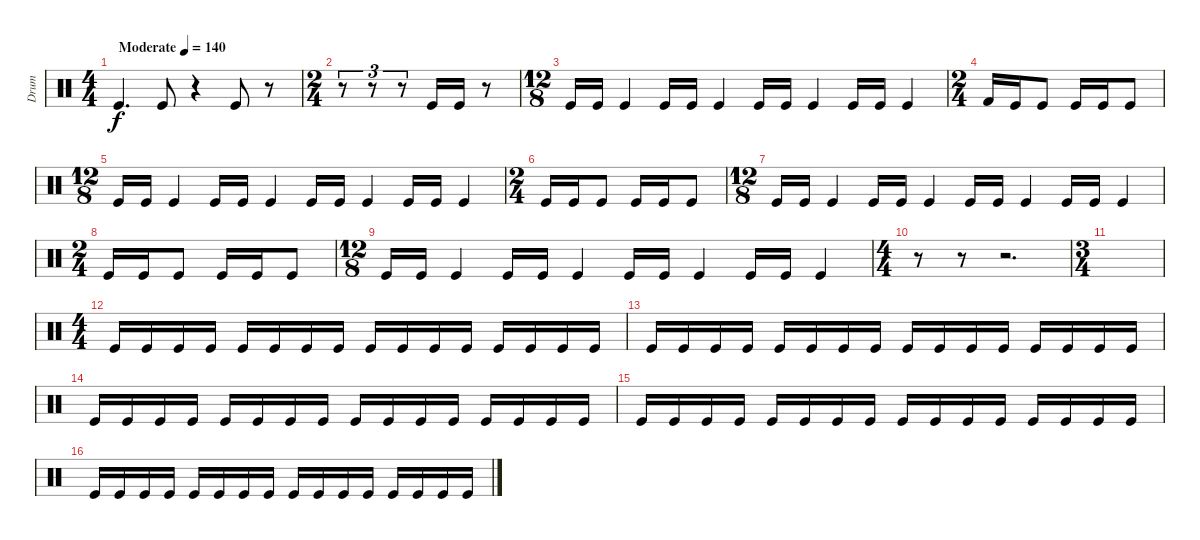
\track ("Drum" "Drum") {instrument percussion}
\staff {score}
\articulation defaults
\ts (4 4)
\tempo (140 "Moderate")
\clef neutral
\ks c "Kick (hit)".4{d dy f} "Kick (hit)".8
r.4 "Kick (hit)".8 r.8 |
\ts (2 4)
r.8{tu (3 2)} r.8{tu (3 2)} r.8{tu (3 2)} "Kick (hit)".16 "Kick (hit)".16 r.8 |
\ts (12 8)
"Kick (hit)".16 "Kick (hit)".16 "Kick (hit)".4 "Kick (hit)".16 "Kick (hit)".16 "Kick (hit)".4 "Kick (hit)".16 "Kick (hit)".16 "Kick (hit)".4 "Kick (hit)".16 "Kick (hit)".16 "Kick (hit)".4 |
\ts (2 4)
"Kick (hit) 2".16 "Kick (hit)".16 "Kick (hit)".8 "Kick (hit)".16 "Kick (hit)".16 "Kick (hit)".8 |
\ts (12 8)
"Kick (hit)".16 "Kick (hit)".16 "Kick (hit)".4 "Kick (hit)".16 "Kick (hit)".16 "Kick (hit)".4 "Kick (hit)".16 "Kick (hit)".16 "Kick (hit)".4 "Kick (hit)".16 "Kick (hit)".16 "Kick (hit)".4 |
\ts (2 4)
"Kick (hit)".16 "Kick (hit)".16 "Kick (hit)".8 "Kick (hit)".16 "Kick (hit)".16 "Kick (hit)".8 |
\ts (12 8)
"Kick (hit)".16 "Kick (hit)".16 "Kick (hit)".4 "Kick (hit)".16 "Kick (hit)".16 "Kick (hit)".4 "Kick (hit)".16 "Kick (hit)".16 "Kick (hit)".4 "Kick (hit)".16 "Kick (hit)".16 "Kick (hit)".4 |
\ts (2 4)
"Kick (hit)".16 "Kick (hit)".16 "Kick (hit)".8 "Kick (hit)".16 "Kick (hit)".16 "Kick (hit)".8 |
\ts (12 8)
"Kick (hit)".16 "Kick (hit)".16 "Kick (hit)".4 "Kick (hit)".16 "Kick (hit)".16 "Kick (hit)".4 "Kick (hit)".16 "Kick (hit)".16 "Kick (hit)".4 "Kick (hit)".16 "Kick (hit)".16 "Kick (hit)".4 |
\ts (4 4)
r.8 r.8 r.2{d} |
\ts (3 4)
|
\ts (4 4)
"Kick (hit)".16 "Kick (hit)".16 "Kick (hit)".16 "Kick (hit)".16 "Kick (hit)".16 "Kick (hit)".16 "Kick (hit)".16 "Kick (hit)".16 "Kick (hit)".16 "Kick (hit)".16 "Kick (hit)".16 "Kick (hit)".16 "Kick (hit)".16 "Kick (hit)".16 "Kick (hit)".16 "Kick (hit)".16 |
"Kick (hit)".16 "Kick (hit)".16 "Kick (hit)".16 "Kick (hit)".16 "Kick (hit)".16 "Kick (hit)".16 "Kick (hit)".16 "Kick (hit)".16 "Kick (hit)".16 "Kick (hit)".16 "Kick (hit)".16 "Kick (hit)".16 "Kick (hit)".16 "Kick (hit)".16 "Kick (hit)".16 "Kick (hit)".16 |
"Kick (hit)".16 "Kick (hit)".16 "Kick (hit)".16 "Kick (hit)".16 "Kick (hit)".16 "Kick (hit)".16 "Kick (hit)".16 "Kick (hit)".16 "Kick (hit)".16 "Kick (hit)".16 "Kick (hit)".16 "Kick (hit)".16 "Kick (hit)".16 "Kick (hit)".16 "Kick (hit)".16 "Kick (hit)".16 |
"Kick (hit)".16 "Kick (hit)".16 "Kick (hit)".16 "Kick (hit)".16 "Kick (hit)".16 "Kick (hit)".16 "Kick (hit)".16 "Kick (hit)".16 "Kick (hit)".16 "Kick (hit)".16 "Kick (hit)".16 "Kick (hit)".16 "Kick (hit)".16 "Kick (hit)".16 "Kick (hit)".16 "Kick (hit)".16 |
"Kick (hit)".16 "Kick (hit)".16 "Kick (hit)".16 "Kick (hit)".16 "Kick (hit)".16 "Kick (hit)".16 "Kick (hit)".16 "Kick (hit)".16 "Kick (hit)".16 "Kick (hit)".16 "Kick (hit)".16 "Kick (hit)".16 "Kick (hit)".16 "Kick (hit)".16 "Kick (hit)".16 "Kick (hit)".16
